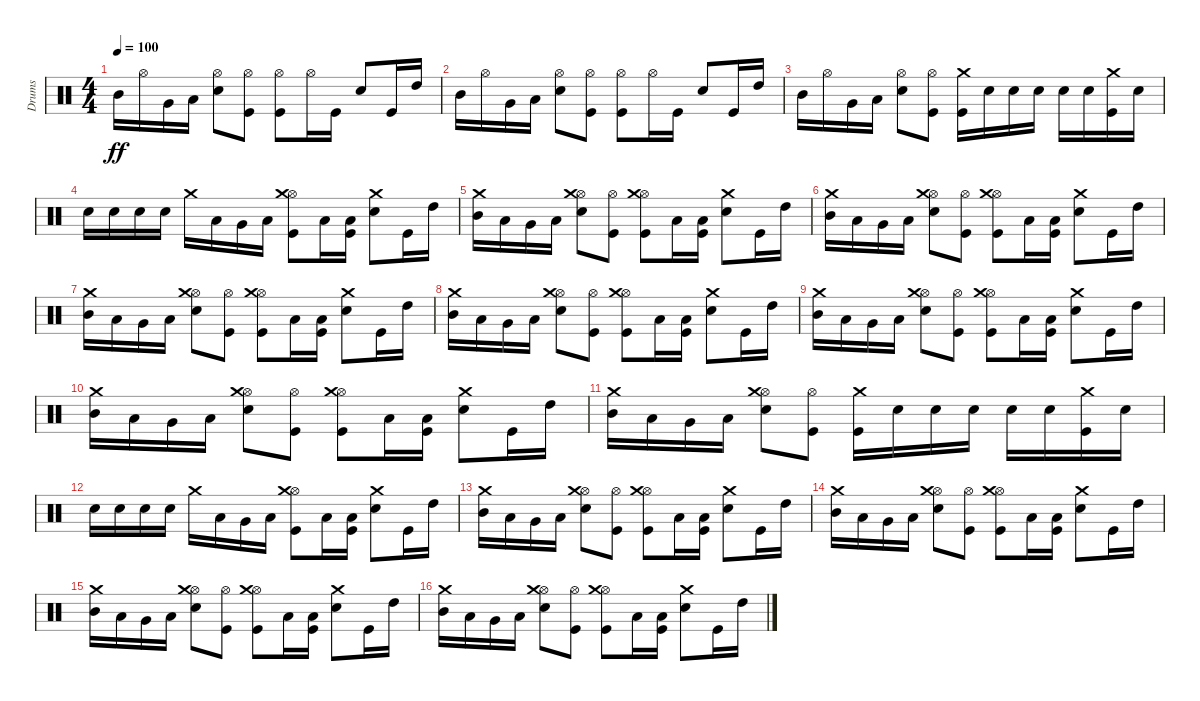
\track ("Drums" "Drums") {instrument percussion}
\staff {score}
\articulation defaults
\ts (4 4)
\tempo 100
\clef neutral
\ks c "Mid Tom (hit)".16{dy ff} "Hi-Hat (open)".16 "Very Low Tom (hit)".16 "Low Floor Tom (hit)".16
("Electric Snare (hit)" "Hi-Hat (open)").8 ("Kick (hit)" "Hi-Hat (open)").8 ("Kick (hit)" "Hi-Hat (open)").8 "Hi-Hat (open)".16 "Kick (hit)".16 "Electric Snare (hit)".8 "Kick (hit)".16 "High Tom (hit)".16 |
"Mid Tom (hit)".16 "Hi-Hat (open)".16 "Very Low Tom (hit)".16 "Low Floor Tom (hit)".16 ("Electric Snare (hit)" "Hi-Hat (open)").8 ("Kick (hit)" "Hi-Hat (open)").8 ("Kick (hit)" "Hi-Hat (open)").8 "Hi-Hat (open)".16 "Kick (hit)".16 "Electric Snare (hit)".8 "Kick (hit)".16 "High Tom (hit)".16 |
"Mid Tom (hit)".16 "Hi-Hat (open)".16 "Very Low Tom (hit)".16 "Low Floor Tom (hit)".16 ("Electric Snare (hit)" "Hi-Hat (open)").8 ("Kick (hit)" "Hi-Hat (open)").8 ("Kick (hit)" "Crash medium (hit)").16 "Electric Snare (hit)".16 "Electric Snare (hit)".16 "Electric Snare (hit)".16 "Electric Snare (hit)".16 "Electric Snare (hit)".16 ("Kick (hit)" "Crash medium (hit)").16 "Electric Snare (hit)".16 |
"Electric Snare (hit)".16 "Electric Snare (hit)".16 "Electric Snare (hit)".16 "Electric Snare (hit)".16 "Crash medium (hit)".16 "Low Tom (hit)".16 "Very Low Tom (hit)".16 "Low Floor Tom (hit)".16 ("Kick (hit)" "Hi-Hat (open)" "Crash medium (hit)").8 "Low Tom (hit)".16 ("Kick (hit)" "Low Floor Tom (hit)").16 ("Electric Snare (hit)" "Crash medium (hit)").8 "Kick (hit)".16 "High Tom (hit)".16 |
("Mid Tom (hit)" "Crash medium (hit)").16 "Low Tom (hit)".16 "Very Low Tom (hit)".16 "Low Floor Tom (hit)".16 ("Electric Snare (hit)" "Hi-Hat (open)" "Crash medium (hit)").8 ("Kick (hit)" "Hi-Hat (open)").8 ("Kick (hit)" "Hi-Hat (open)" "Crash medium (hit)").8 "Low Tom (hit)".16 ("Kick (hit)" "Low Floor Tom (hit)").16 ("Electric Snare (hit)" "Crash medium (hit)").8 "Kick (hit)".16 "High Tom (hit)".16 |
("Mid Tom (hit)" "Crash medium (hit)").16 "Low Tom (hit)".16 "Very Low Tom (hit)".16 "Low Floor Tom (hit)".16 ("Electric Snare (hit)" "Hi-Hat (open)" "Crash medium (hit)").8 ("Kick (hit)" "Hi-Hat (open)").8 ("Kick (hit)" "Hi-Hat (open)" "Crash medium (hit)").8 "Low Tom (hit)".16 ("Kick (hit)" "Low Floor Tom (hit)").16 ("Electric Snare (hit)" "Crash medium (hit)").8 "Kick (hit)".16 "High Tom (hit)".16 |
("Mid Tom (hit)" "Crash medium (hit)").16 "Low Tom (hit)".16 "Very Low Tom (hit)".16 "Low Floor Tom (hit)".16 ("Electric Snare (hit)" "Hi-Hat (open)" "Crash medium (hit)").8 ("Kick (hit)" "Hi-Hat (open)").8 ("Kick (hit)" "Hi-Hat (open)" "Crash medium (hit)").8 "Low Tom (hit)".16 ("Kick (hit)" "Low Floor Tom (hit)").16 ("Electric Snare (hit)" "Crash medium (hit)").8 "Kick (hit)".16 "High Tom (hit)".16 |
("Mid Tom (hit)" "Crash medium (hit)").16 "Low Tom (hit)".16 "Very Low Tom (hit)".16 "Low Floor Tom (hit)".16 ("Electric Snare (hit)" "Hi-Hat (open)" "Crash medium (hit)").8 ("Kick (hit)" "Hi-Hat (open)").8 ("Kick (hit)" "Hi-Hat (open)" "Crash medium (hit)").8 "Low Tom (hit)".16 ("Kick (hit)" "Low Floor Tom (hit)").16 ("Electric Snare (hit)" "Crash medium (hit)").8 "Kick (hit)".16 "High Tom (hit)".16 |
("Mid Tom (hit)" "Crash medium (hit)").16 "Low Tom (hit)".16 "Very Low Tom (hit)".16 "Low Floor Tom (hit)".16 ("Electric Snare (hit)" "Hi-Hat (open)" "Crash medium (hit)").8 ("Kick (hit)" "Hi-Hat (open)").8 ("Kick (hit)" "Hi-Hat (open)" "Crash medium (hit)").8 "Low Tom (hit)".16 ("Kick (hit)" "Low Floor Tom (hit)").16 ("Electric Snare (hit)" "Crash medium (hit)").8 "Kick (hit)".16 "High Tom (hit)".16 |
("Mid Tom (hit)" "Crash medium (hit)").16 "Low Tom (hit)".16 "Very Low Tom (hit)".16 "Low Floor Tom (hit)".16 ("Electric Snare (hit)" "Hi-Hat (open)" "Crash medium (hit)").8 ("Kick (hit)" "Hi-Hat (open)").8 ("Kick (hit)" "Hi-Hat (open)" "Crash medium (hit)").8 "Low Tom (hit)".16 ("Kick (hit)" "Low Floor Tom (hit)").16 ("Electric Snare (hit)" "Crash medium (hit)").8 "Kick (hit)".16 "High Tom (hit)".16 |
("Mid Tom (hit)" "Crash medium (hit)").16 "Low Tom (hit)".16 "Very Low Tom (hit)".16 "Low Floor Tom (hit)".16 ("Electric Snare (hit)" "Hi-Hat (open)" "Crash medium (hit)").8 ("Kick (hit)" "Hi-Hat (open)").8 ("Kick (hit)" "Crash medium (hit)").16 "Electric Snare (hit)".16 "Electric Snare (hit)".16 "Electric Snare (hit)".16 "Electric Snare (hit)".16 "Electric Snare (hit)".16 ("Kick (hit)" "Crash medium (hit)").16 "Electric Snare (hit)".16 |
"Electric Snare (hit)".16 "Electric Snare (hit)".16 "Electric Snare (hit)".16 "Electric Snare (hit)".16 "Crash medium (hit)".16 "Low Tom (hit)".16 "Very Low Tom (hit)".16 "Low Floor Tom (hit)".16 ("Kick (hit)" "Hi-Hat (open)" "Crash medium (hit)").8 "Low Tom (hit)".16 ("Kick (hit)" "Low Floor Tom (hit)").16 ("Electric Snare (hit)" "Crash medium (hit)").8 "Kick (hit)".16 "High Tom (hit)".16 |
("Mid Tom (hit)" "Crash medium (hit)").16 "Low Tom (hit)".16 "Very Low Tom (hit)".16 "Low Floor Tom (hit)".16 ("Electric Snare (hit)" "Hi-Hat (open)" "Crash medium (hit)").8 ("Kick (hit)" "Hi-Hat (open)").8 ("Kick (hit)" "Hi-Hat (open)" "Crash medium (hit)").8 "Low Tom (hit)".16 ("Kick (hit)" "Low Floor Tom (hit)").16 ("Electric Snare (hit)" "Crash medium (hit)").8 "Kick (hit)".16 "High Tom (hit)".16 |
("Mid Tom (hit)" "Crash medium (hit)").16 "Low Tom (hit)".16 "Very Low Tom (hit)".16 "Low Floor Tom (hit)".16 ("Electric Snare (hit)" "Hi-Hat (open)" "Crash medium (hit)").8 ("Kick (hit)" "Hi-Hat (open)").8 ("Kick (hit)" "Hi-Hat (open)" "Crash medium (hit)").8 "Low Tom (hit)".16 ("Kick (hit)" "Low Floor Tom (hit)").16 ("Electric Snare (hit)" "Crash medium (hit)").8 "Kick (hit)".16 "High Tom (hit)".16 |
("Mid Tom (hit)" "Crash medium (hit)").16 "Low Tom (hit)".16 "Very Low Tom (hit)".16 "Low Floor Tom (hit)".16 ("Electric Snare (hit)" "Hi-Hat (open)" "Crash medium (hit)").8 ("Kick (hit)" "Hi-Hat (open)").8 ("Kick (hit)" "Hi-Hat (open)" "Crash medium (hit)").8 "Low Tom (hit)".16 ("Kick (hit)" "Low Floor Tom (hit)").16 ("Electric Snare (hit)" "Crash medium (hit)").8 "Kick (hit)".16 "High Tom (hit)".16 |
("Mid Tom (hit)" "Crash medium (hit)").16 "Low Tom (hit)".16 "Very Low Tom (hit)".16 "Low Floor Tom (hit)".16 ("Electric Snare (hit)" "Hi-Hat (open)" "Crash medium (hit)").8 ("Kick (hit)" "Hi-Hat (open)").8 ("Kick (hit)" "Hi-Hat (open)" "Crash medium (hit)").8 "Low Tom (hit)".16 ("Kick (hit)" "Low Floor Tom (hit)").16 ("Electric Snare (hit)" "Crash medium (hit)").8 "Kick (hit)".16 "High Tom (hit)".16
